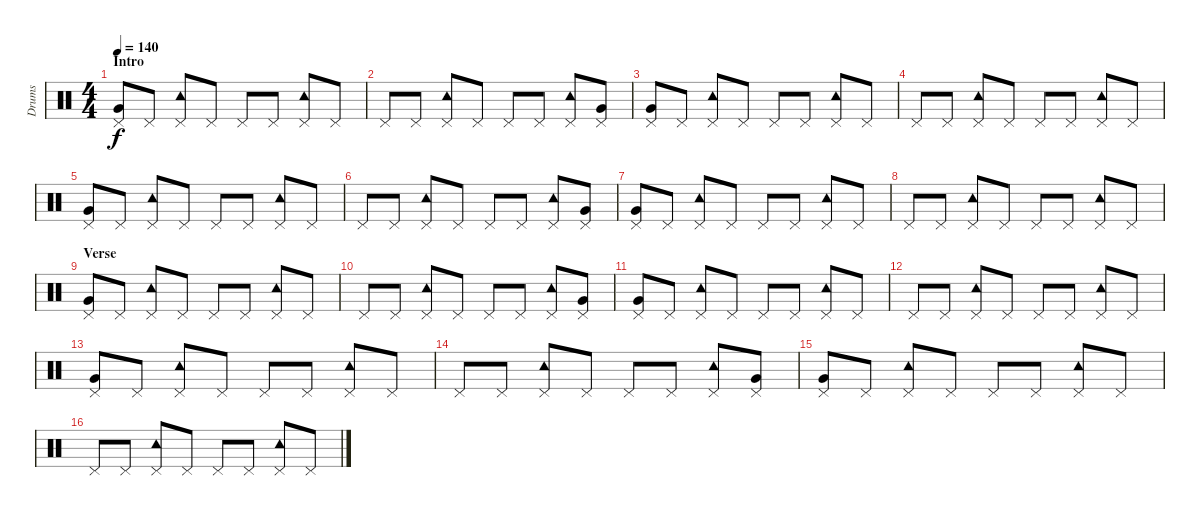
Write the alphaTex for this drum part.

\track ("Drums" "Drums") {instrument percussion}
\staff {score}
\articulation defaults
\ts (4 4)
\section ("" "Intro")
\tempo 140
\clef neutral
\ks c
("Pedal Hi-Hat (hit)" "Very Low Tom (hit)").8{dy f} "Pedal Hi-Hat (hit)".8 ("Pedal Hi-Hat (hit)" "Tambourine (hit)").8 "Pedal Hi-Hat (hit)".8 "Pedal Hi-Hat (hit)".8 "Pedal Hi-Hat (hit)".8 ("Pedal Hi-Hat (hit)" "Tambourine (hit)").8 "Pedal Hi-Hat (hit)".8 |
"Pedal Hi-Hat (hit)".8 "Pedal Hi-Hat (hit)".8 ("Pedal Hi-Hat (hit)" "Tambourine (hit)").8 "Pedal Hi-Hat (hit)".8 "Pedal Hi-Hat (hit)".8 "Pedal Hi-Hat (hit)".8 ("Pedal Hi-Hat (hit)" "Tambourine (hit)").8 ("Pedal Hi-Hat (hit)" "Very Low Tom (hit)").8 |
("Pedal Hi-Hat (hit)" "Very Low Tom (hit)").8 "Pedal Hi-Hat (hit)".8 ("Pedal Hi-Hat (hit)" "Tambourine (hit)").8 "Pedal Hi-Hat (hit)".8 "Pedal Hi-Hat (hit)".8 "Pedal Hi-Hat (hit)".8 ("Pedal Hi-Hat (hit)" "Tambourine (hit)").8 "Pedal Hi-Hat (hit)".8 |
"Pedal Hi-Hat (hit)".8 "Pedal Hi-Hat (hit)".8 ("Pedal Hi-Hat (hit)" "Tambourine (hit)").8 "Pedal Hi-Hat (hit)".8 "Pedal Hi-Hat (hit)".8 "Pedal Hi-Hat (hit)".8 ("Pedal Hi-Hat (hit)" "Tambourine (hit)").8 "Pedal Hi-Hat (hit)".8 |
("Pedal Hi-Hat (hit)" "Very Low Tom (hit)").8 "Pedal Hi-Hat (hit)".8 ("Pedal Hi-Hat (hit)" "Tambourine (hit)").8 "Pedal Hi-Hat (hit)".8 "Pedal Hi-Hat (hit)".8 "Pedal Hi-Hat (hit)".8 ("Pedal Hi-Hat (hit)" "Tambourine (hit)").8 "Pedal Hi-Hat (hit)".8 |
"Pedal Hi-Hat (hit)".8 "Pedal Hi-Hat (hit)".8 ("Pedal Hi-Hat (hit)" "Tambourine (hit)").8 "Pedal Hi-Hat (hit)".8 "Pedal Hi-Hat (hit)".8 "Pedal Hi-Hat (hit)".8 ("Pedal Hi-Hat (hit)" "Tambourine (hit)").8 ("Pedal Hi-Hat (hit)" "Very Low Tom (hit)").8 |
("Pedal Hi-Hat (hit)" "Very Low Tom (hit)").8 "Pedal Hi-Hat (hit)".8 ("Pedal Hi-Hat (hit)" "Tambourine (hit)").8 "Pedal Hi-Hat (hit)".8 "Pedal Hi-Hat (hit)".8 "Pedal Hi-Hat (hit)".8 ("Pedal Hi-Hat (hit)" "Tambourine (hit)").8 "Pedal Hi-Hat (hit)".8 |
"Pedal Hi-Hat (hit)".8 "Pedal Hi-Hat (hit)".8 ("Pedal Hi-Hat (hit)" "Tambourine (hit)").8 "Pedal Hi-Hat (hit)".8 "Pedal Hi-Hat (hit)".8 "Pedal Hi-Hat (hit)".8 ("Pedal Hi-Hat (hit)" "Tambourine (hit)").8 "Pedal Hi-Hat (hit)".8 |
\section ("" "Verse")
("Pedal Hi-Hat (hit)" "Very Low Tom (hit)").8 "Pedal Hi-Hat (hit)".8 ("Pedal Hi-Hat (hit)" "Tambourine (hit)").8 "Pedal Hi-Hat (hit)".8 "Pedal Hi-Hat (hit)".8 "Pedal Hi-Hat (hit)".8 ("Pedal Hi-Hat (hit)" "Tambourine (hit)").8 "Pedal Hi-Hat (hit)".8 |
"Pedal Hi-Hat (hit)".8 "Pedal Hi-Hat (hit)".8 ("Pedal Hi-Hat (hit)" "Tambourine (hit)").8 "Pedal Hi-Hat (hit)".8 "Pedal Hi-Hat (hit)".8 "Pedal Hi-Hat (hit)".8 ("Pedal Hi-Hat (hit)" "Tambourine (hit)").8 ("Pedal Hi-Hat (hit)" "Very Low Tom (hit)").8 |
("Pedal Hi-Hat (hit)" "Very Low Tom (hit)").8 "Pedal Hi-Hat (hit)".8 ("Pedal Hi-Hat (hit)" "Tambourine (hit)").8 "Pedal Hi-Hat (hit)".8 "Pedal Hi-Hat (hit)".8 "Pedal Hi-Hat (hit)".8 ("Pedal Hi-Hat (hit)" "Tambourine (hit)").8 "Pedal Hi-Hat (hit)".8 |
"Pedal Hi-Hat (hit)".8 "Pedal Hi-Hat (hit)".8 ("Pedal Hi-Hat (hit)" "Tambourine (hit)").8 "Pedal Hi-Hat (hit)".8 "Pedal Hi-Hat (hit)".8 "Pedal Hi-Hat (hit)".8 ("Pedal Hi-Hat (hit)" "Tambourine (hit)").8 "Pedal Hi-Hat (hit)".8 |
("Pedal Hi-Hat (hit)" "Very Low Tom (hit)").8 "Pedal Hi-Hat (hit)".8 ("Pedal Hi-Hat (hit)" "Tambourine (hit)").8 "Pedal Hi-Hat (hit)".8 "Pedal Hi-Hat (hit)".8 "Pedal Hi-Hat (hit)".8 ("Pedal Hi-Hat (hit)" "Tambourine (hit)").8 "Pedal Hi-Hat (hit)".8 |
"Pedal Hi-Hat (hit)".8 "Pedal Hi-Hat (hit)".8 ("Pedal Hi-Hat (hit)" "Tambourine (hit)").8 "Pedal Hi-Hat (hit)".8 "Pedal Hi-Hat (hit)".8 "Pedal Hi-Hat (hit)".8 ("Pedal Hi-Hat (hit)" "Tambourine (hit)").8 ("Pedal Hi-Hat (hit)" "Very Low Tom (hit)").8 |
("Pedal Hi-Hat (hit)" "Very Low Tom (hit)").8 "Pedal Hi-Hat (hit)".8 ("Pedal Hi-Hat (hit)" "Tambourine (hit)").8 "Pedal Hi-Hat (hit)".8 "Pedal Hi-Hat (hit)".8 "Pedal Hi-Hat (hit)".8 ("Pedal Hi-Hat (hit)" "Tambourine (hit)").8 "Pedal Hi-Hat (hit)".8 |
"Pedal Hi-Hat (hit)".8 "Pedal Hi-Hat (hit)".8 ("Pedal Hi-Hat (hit)" "Tambourine (hit)").8 "Pedal Hi-Hat (hit)".8 "Pedal Hi-Hat (hit)".8 "Pedal Hi-Hat (hit)".8 ("Pedal Hi-Hat (hit)" "Tambourine (hit)").8 "Pedal Hi-Hat (hit)".8
